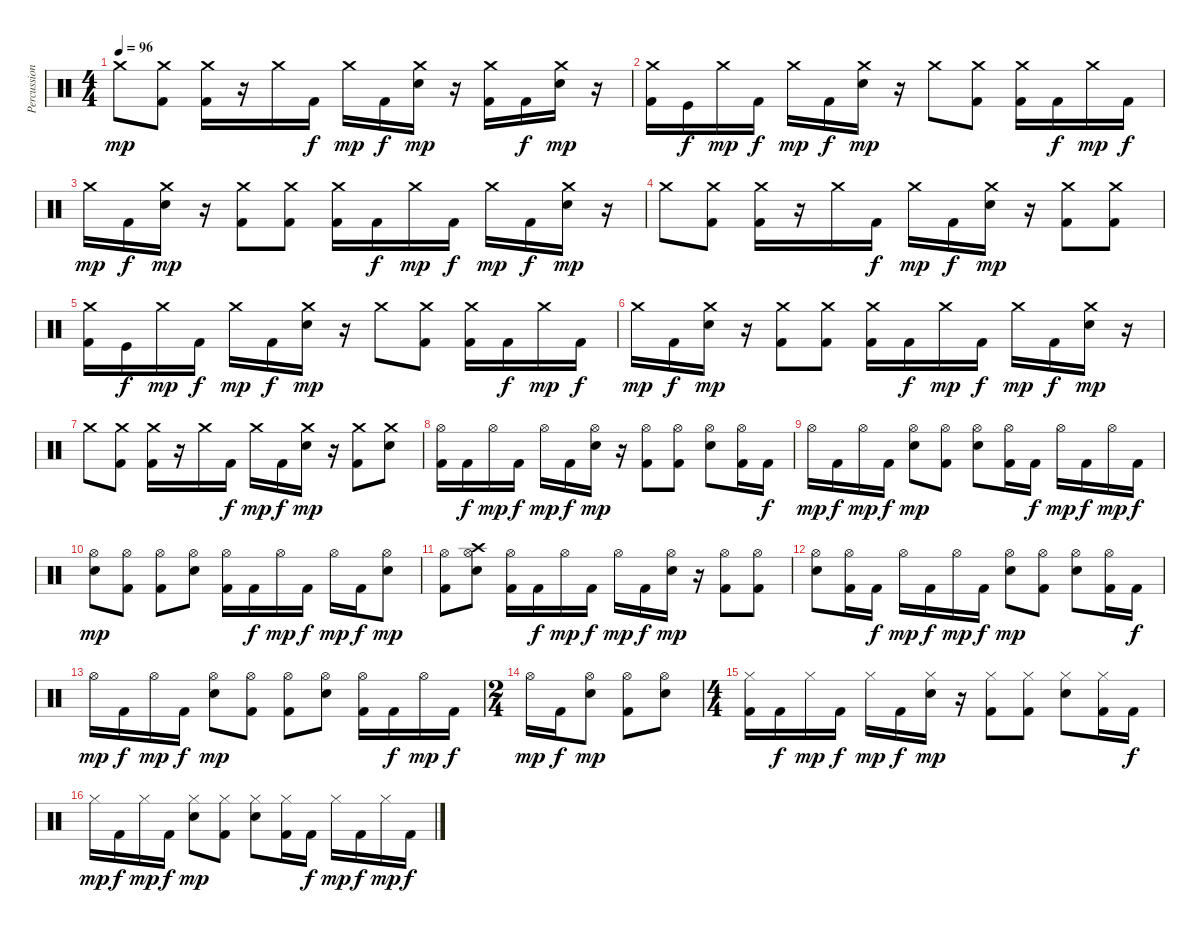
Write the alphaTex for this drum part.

\track ("Percussions" "Percussion") {instrument percussion}
\staff {score}
\articulation defaults
\ts (4 4)
\tempo 96
\clef neutral
\ks c "Crash medium (hit)".8{dy mp}
("Crash medium (hit)" "Kick (hit) 2").8 ("Crash medium (hit)" "Kick (hit) 2").16 r.16 "Crash medium (hit)".16 "Kick (hit) 2".16{dy f} "Crash medium (hit)".16{dy mp} "Kick (hit) 2".16{dy f} ("Crash medium (hit)" "Snare (hit) 2").16{dy mp} r.16 ("Crash medium (hit)" "Kick (hit) 2").16 "Kick (hit) 2".16{dy f} ("Crash medium (hit)" "Snare (hit) 2").16{dy mp} r.16 |
("Crash medium (hit)" "Kick (hit) 2").16 "Kick (hit)".16{dy f} "Crash medium (hit)".16{dy mp} "Kick (hit) 2".16{dy f} "Crash medium (hit)".16{dy mp} "Kick (hit) 2".16{dy f} ("Crash medium (hit)" "Snare (hit) 2").16{dy mp} r.16 "Crash medium (hit)".8 ("Crash medium (hit)" "Kick (hit) 2").8 ("Crash medium (hit)" "Kick (hit) 2").16 "Kick (hit) 2".16{dy f} "Crash medium (hit)".16{dy mp} "Kick (hit) 2".16{dy f} |
"Crash medium (hit)".16{dy mp} "Kick (hit) 2".16{dy f} ("Crash medium (hit)" "Snare (hit) 2").16{dy mp} r.16 ("Crash medium (hit)" "Kick (hit) 2").8 ("Crash medium (hit)" "Kick (hit) 2").8 ("Crash medium (hit)" "Kick (hit) 2").16 "Kick (hit) 2".16{dy f} "Crash medium (hit)".16{dy mp} "Kick (hit) 2".16{dy f} "Crash medium (hit)".16{dy mp} "Kick (hit) 2".16{dy f} ("Crash medium (hit)" "Snare (hit) 2").16{dy mp} r.16 |
"Crash medium (hit)".8 ("Crash medium (hit)" "Kick (hit) 2").8 ("Crash medium (hit)" "Kick (hit) 2").16 r.16 "Crash medium (hit)".16 "Kick (hit) 2".16{dy f} "Crash medium (hit)".16{dy mp} "Kick (hit) 2".16{dy f} ("Crash medium (hit)" "Snare (hit) 2").16{dy mp} r.16 ("Crash medium (hit)" "Kick (hit) 2").8 ("Crash medium (hit)" "Kick (hit) 2").8 |
("Crash medium (hit)" "Kick (hit) 2").16 "Kick (hit)".16{dy f} "Crash medium (hit)".16{dy mp} "Kick (hit) 2".16{dy f} "Crash medium (hit)".16{dy mp} "Kick (hit) 2".16{dy f} ("Crash medium (hit)" "Snare (hit) 2").16{dy mp} r.16 "Crash medium (hit)".8 ("Crash medium (hit)" "Kick (hit) 2").8 ("Crash medium (hit)" "Kick (hit) 2").16 "Kick (hit) 2".16{dy f} "Crash medium (hit)".16{dy mp} "Kick (hit) 2".16{dy f} |
"Crash medium (hit)".16{dy mp} "Kick (hit) 2".16{dy f} ("Crash medium (hit)" "Snare (hit) 2").16{dy mp} r.16 ("Crash medium (hit)" "Kick (hit) 2").8 ("Crash medium (hit)" "Kick (hit) 2").8 ("Crash medium (hit)" "Kick (hit) 2").16 "Kick (hit) 2".16{dy f} "Crash medium (hit)".16{dy mp} "Kick (hit) 2".16{dy f} "Crash medium (hit)".16{dy mp} "Kick (hit) 2".16{dy f} ("Crash medium (hit)" "Snare (hit) 2").16{dy mp} r.16 |
"Crash medium (hit)".8 ("Crash medium (hit)" "Kick (hit) 2").8 ("Crash medium (hit)" "Kick (hit) 2").16 r.16 "Crash medium (hit)".16 "Kick (hit) 2".16{dy f} "Crash medium (hit)".16{dy mp} "Kick (hit) 2".16{dy f} ("Crash medium (hit)" "Snare (hit) 2").16{dy mp} r.16 ("Crash medium (hit)" "Kick (hit) 2").8 ("Crash medium (hit)" "Snare (hit) 2").8 |
("Hi-Hat (open)" "Kick (hit) 2").16 "Kick (hit) 2".16{dy f} "Hi-Hat (open)".16{dy mp} "Kick (hit) 2".16{dy f} "Hi-Hat (open)".16{dy mp} "Kick (hit) 2".16{dy f} ("Hi-Hat (open)" "Snare (hit) 2").16{dy mp} r.16 ("Hi-Hat (open)" "Kick (hit) 2").8 ("Hi-Hat (open)" "Kick (hit) 2").8 ("Hi-Hat (open)" "Snare (hit) 2").8 ("Hi-Hat (open)" "Kick (hit) 2").16 "Kick (hit) 2".16{dy f} |
"Hi-Hat (open)".16{dy mp} "Kick (hit) 2".16{dy f} "Hi-Hat (open)".16{dy mp} "Kick (hit) 2".16{dy f} ("Hi-Hat (open)" "Snare (hit) 2").8{dy mp} ("Hi-Hat (open)" "Kick (hit) 2").8 ("Hi-Hat (open)" "Snare (hit) 2").8 ("Hi-Hat (open)" "Kick (hit) 2").16 "Kick (hit) 2".16{dy f} "Hi-Hat (open)".16{dy mp} "Kick (hit) 2".16{dy f} "Hi-Hat (open)".16{dy mp} "Kick (hit) 2".16{dy f} |
("Hi-Hat (open)" "Snare (hit) 2").8{dy mp} ("Hi-Hat (open)" "Kick (hit) 2").8 ("Hi-Hat (open)" "Kick (hit) 2").8 ("Hi-Hat (open)" "Snare (hit) 2").8 ("Hi-Hat (open)" "Kick (hit) 2").16 "Kick (hit) 2".16{dy f} "Hi-Hat (open)".16{dy mp} "Kick (hit) 2".16{dy f} "Hi-Hat (open)".16{dy mp} "Kick (hit) 2".16{dy f} ("Hi-Hat (open)" "Snare (hit) 2").8{dy mp} |
("Hi-Hat (open)" "Kick (hit) 2").8 ("Hi-Hat (open)" "Crash high (hit)" "Snare (hit) 2").8 ("Hi-Hat (open)" "Kick (hit) 2").16 "Kick (hit) 2".16{dy f} "Hi-Hat (open)".16{dy mp} "Kick (hit) 2".16{dy f} "Hi-Hat (open)".16{dy mp} "Kick (hit) 2".16{dy f} ("Hi-Hat (open)" "Snare (hit) 2").16{dy mp} r.16 ("Hi-Hat (open)" "Kick (hit) 2").8 ("Hi-Hat (open)" "Kick (hit) 2").8 |
("Hi-Hat (open)" "Snare (hit) 2").8 ("Hi-Hat (open)" "Kick (hit) 2").16 "Kick (hit) 2".16{dy f} "Hi-Hat (open)".16{dy mp} "Kick (hit) 2".16{dy f} "Hi-Hat (open)".16{dy mp} "Kick (hit) 2".16{dy f} ("Hi-Hat (open)" "Snare (hit) 2").8{dy mp} ("Hi-Hat (open)" "Kick (hit) 2").8 ("Hi-Hat (open)" "Snare (hit) 2").8 ("Hi-Hat (open)" "Kick (hit) 2").16 "Kick (hit) 2".16{dy f} |
"Hi-Hat (open)".16{dy mp} "Kick (hit) 2".16{dy f} "Hi-Hat (open)".16{dy mp} "Kick (hit) 2".16{dy f} ("Hi-Hat (open)" "Snare (hit) 2").8{dy mp} ("Hi-Hat (open)" "Kick (hit) 2").8 ("Hi-Hat (open)" "Kick (hit) 2").8 ("Hi-Hat (open)" "Snare (hit) 2").8 ("Hi-Hat (open)" "Kick (hit) 2").16 "Kick (hit) 2".16{dy f} "Hi-Hat (open)".16{dy mp} "Kick (hit) 2".16{dy f} |
\ts (2 4)
"Hi-Hat (open)".16{dy mp} "Kick (hit) 2".16{dy f} ("Hi-Hat (open)" "Snare (hit) 2").8{dy mp} ("Hi-Hat (open)" "Kick (hit) 2").8 ("Hi-Hat (open)" "Snare (hit) 2").8 |
\ts (4 4)
("Hi-Hat (closed)" "Kick (hit) 2").16 "Kick (hit) 2".16{dy f} "Hi-Hat (closed)".16{dy mp} "Kick (hit) 2".16{dy f} "Hi-Hat (closed)".16{dy mp} "Kick (hit) 2".16{dy f} ("Hi-Hat (closed)" "Snare (hit) 2").16{dy mp} r.16 ("Hi-Hat (closed)" "Kick (hit) 2").8 ("Hi-Hat (closed)" "Kick (hit) 2").8 ("Hi-Hat (closed)" "Snare (hit) 2").8 ("Hi-Hat (closed)" "Kick (hit) 2").16 "Kick (hit) 2".16{dy f} |
"Hi-Hat (closed)".16{dy mp} "Kick (hit) 2".16{dy f} "Hi-Hat (closed)".16{dy mp} "Kick (hit) 2".16{dy f} ("Hi-Hat (closed)" "Snare (hit) 2").8{dy mp} ("Hi-Hat (closed)" "Kick (hit) 2").8 ("Hi-Hat (closed)" "Snare (hit) 2").8 ("Hi-Hat (closed)" "Kick (hit) 2").16 "Kick (hit) 2".16{dy f} "Hi-Hat (closed)".16{dy mp} "Kick (hit) 2".16{dy f} "Hi-Hat (closed)".16{dy mp} "Kick (hit) 2".16{dy f}
